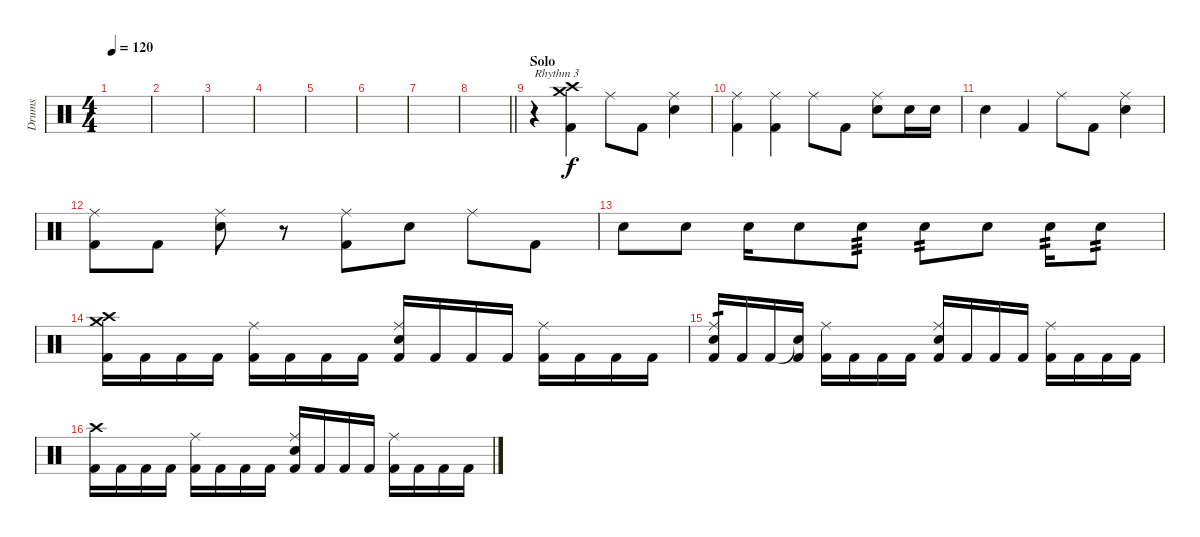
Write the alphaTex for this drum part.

\track ("Drums" "Drums") {instrument percussion}
\staff {score}
\articulation defaults
\ts (4 4)
\tempo 120
\clef neutral
\ks c
|
|
|
|
|
|
|
\barLineRight lightlight
|
\section ("" "Solo")
r.4{txt "Rhythm 3" volume 13} ("Crash high (hit)" "Crash medium (hit)" "Kick (hit) 2").4{dy f} "Ride (middle)".8 "Kick (hit) 2".8 ("Ride (middle)" "Electric Snare (hit)").4 |
("Ride (middle)" "Kick (hit) 2").4 ("Ride (middle)" "Kick (hit) 2").4 "Ride (middle)".8 "Kick (hit) 2".8 ("Ride (middle)" "Electric Snare (hit)").8 "Electric Snare (hit)".16 "Electric Snare (hit)".16 |
"Electric Snare (hit)".4 "Kick (hit) 2".4 "Ride (middle)".8 "Kick (hit) 2".8 ("Ride (middle)" "Electric Snare (hit)").4 |
("Ride (middle)" "Kick (hit) 2").8 "Kick (hit) 2".8 ("Ride (middle)" "Electric Snare (hit)").8 r.8 ("Ride (middle)" "Kick (hit) 2").8 "Electric Snare (hit)".8 "Ride (middle)".8 "Kick (hit) 2".8 |
"Electric Snare (hit)".8 "Electric Snare (hit)".8 "Electric Snare (hit)".16 "Electric Snare (hit)".8 "Electric Snare (hit)".8{tp 3} "Electric Snare (hit)".8{tp 2} "Electric Snare (hit)".8 "Electric Snare (hit)".16{tp 2} "Electric Snare (hit)".8{tp 2} |
("Crash high (hit)" "Crash medium (hit)" "Kick (hit) 2").16 "Kick (hit) 2".16 "Kick (hit) 2".16 "Kick (hit) 2".16 ("Ride (middle)" "Kick (hit) 2").16 "Kick (hit) 2".16 "Kick (hit) 2".16 "Kick (hit) 2".16 ("Ride (middle)" "Electric Snare (hit)" "Kick (hit) 2").16 "Kick (hit) 2".16 "Kick (hit) 2".16 "Kick (hit) 2".16 ("Ride (middle)" "Kick (hit) 2").16 "Kick (hit) 2".16 "Kick (hit) 2".16 "Kick (hit) 2".16 |
("Ride (middle)" "Electric Snare (hit)" "Kick (hit) 2").16{tp 1} "Kick (hit) 2".16 "Kick (hit) 2".16 ("Snare (hit)"{t} "Kick (hit) 2").16 ("Ride (middle)" "Kick (hit) 2").16 "Kick (hit) 2".16 "Kick (hit) 2".16 "Kick (hit) 2".16 ("Ride (middle)" "Electric Snare (hit)" "Kick (hit) 2").16 "Kick (hit) 2".16 "Kick (hit) 2".16 "Kick (hit) 2".16 ("Ride (middle)" "Kick (hit) 2").16 "Kick (hit) 2".16 "Kick (hit) 2".16 "Kick (hit) 2".16 |
("Crash high (hit)" "Kick (hit) 2").16 "Kick (hit) 2".16 "Kick (hit) 2".16 "Kick (hit) 2".16 ("Ride (middle)" "Kick (hit) 2").16 "Kick (hit) 2".16 "Kick (hit) 2".16 "Kick (hit) 2".16 ("Ride (middle)" "Electric Snare (hit)" "Kick (hit) 2").16 "Kick (hit) 2".16 "Kick (hit) 2".16 "Kick (hit) 2".16 ("Ride (middle)" "Kick (hit) 2").16 "Kick (hit) 2".16 "Kick (hit) 2".16 "Kick (hit) 2".16
